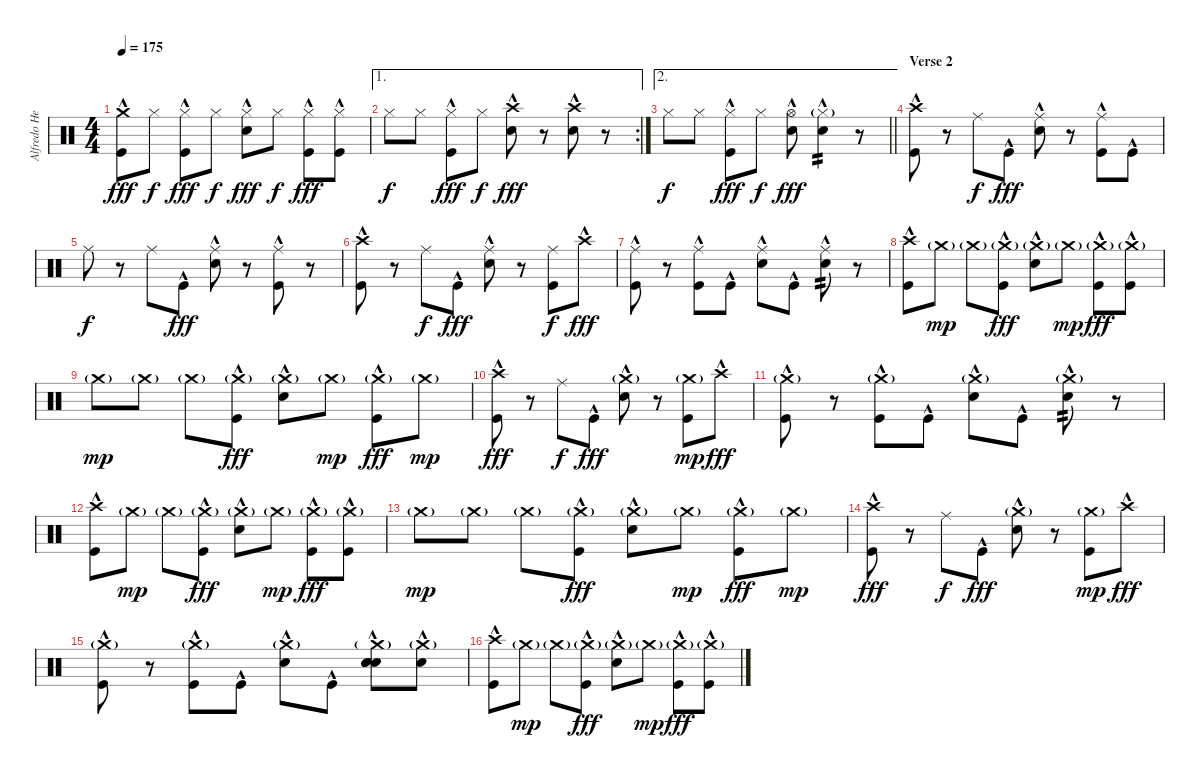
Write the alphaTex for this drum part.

\track ("Alfredo Hernández - Drums" "Alfredo He") {instrument percussion}
\staff {score}
\articulation defaults
\ts (4 4)
\tempo 175
\clef neutral
\ks c
("Crash medium (hit)" "Kick (hit)"{hac}).8{dy fff} "Hi-Hat (closed)".8{dy f} ("Hi-Hat (closed)" "Kick (hit)"{hac}).8{dy fff} "Hi-Hat (closed)".8{dy f} ("Hi-Hat (closed)" "Snare (hit) 2"{hac}).8{dy fff} "Hi-Hat (closed)".8{dy f} ("Hi-Hat (closed)" "Kick (hit)"{hac}).8{dy fff} ("Hi-Hat (closed)" "Kick (hit)"{hac}).8 |
\ae 1
\rc 2 "Hi-Hat (closed)".8{dy f} "Hi-Hat (closed)".8
("Hi-Hat (closed)" "Kick (hit)"{hac}).8{dy fff} "Hi-Hat (closed)".8{dy f} ("Crash high (hit)" "Snare (hit) 2"{hac}).8{dy fff} r.8 ("Crash high (hit)" "Snare (hit) 2"{hac}).8 r.8 |
\ae 2
\barLineRight lightlight "Hi-Hat (closed)".8{dy f} "Hi-Hat (closed)".8
("Hi-Hat (closed)" "Kick (hit)"{hac}).8{dy fff} "Hi-Hat (closed)".8{dy f} ("Hi-Hat (open)" "Snare (hit) 2"{hac}).8{dy fff} ("Hi-Hat (closed)"{g} "Snare (hit) 2"{hac}).4{tp 2} r.8 |
\section ("" "Verse 2")
("Crash high (hit)"{hac} "Kick (hit)"{hac}).8 r.8 "Ride (middle)".8{dy f} "Kick (hit)"{hac}.8{dy fff} ("Ride (middle)" "Snare (hit) 2"{hac}).8 r.8 ("Ride (middle)" "Kick (hit)"{hac}).8 "Kick (hit)"{hac}.8 |
"Ride (middle)".8{dy f} r.8 "Ride (middle)".8 "Kick (hit)"{hac}.8{dy fff} ("Ride (middle)" "Snare (hit) 2"{hac}).8 r.8 ("Ride (middle)" "Kick (hit)"{hac}).8 r.8 |
("Crash high (hit)"{hac} "Kick (hit)"{hac}).8 r.8 "Ride (middle)".8{dy f} "Kick (hit)"{hac}.8{dy fff} ("Ride (middle)" "Snare (hit) 2"{hac}).8 r.8 ("Ride (middle)" "Kick (hit)").8{dy f} "Crash high (hit)"{hac}.8{dy fff} |
("Ride (middle)"{hac} "Kick (hit)"{hac}).8 r.8 ("Ride (middle)" "Kick (hit)"{hac}).8 "Kick (hit)"{hac}.8 ("Ride (middle)" "Snare (hit) 2"{hac}).8 "Kick (hit)"{hac}.8 ("Ride (middle)" "Snare (hit) 2"{hac}).8{tp 2} r.8 |
("Crash high (hit)"{hac} "Kick (hit)"{hac}).8 "Crash medium (hit)"{g}.8{dy mp} "Crash medium (hit)"{g}.8 ("Crash medium (hit)"{g} "Kick (hit)"{hac}).8{dy fff} ("Crash medium (hit)"{g} "Snare (hit) 2"{hac}).8 "Crash medium (hit)"{g}.8{dy mp} ("Crash medium (hit)"{g} "Kick (hit)"{hac}).8{dy fff} ("Crash medium (hit)"{g} "Kick (hit)"{hac}).8 |
"Crash medium (hit)"{g}.8{dy mp} "Crash medium (hit)"{g}.8 "Crash medium (hit)"{g}.8 ("Crash medium (hit)"{g} "Kick (hit)"{hac}).8{dy fff} ("Crash medium (hit)"{g} "Snare (hit) 2"{hac}).8 "Crash medium (hit)"{g}.8{dy mp} ("Crash medium (hit)"{g} "Kick (hit)"{hac}).8{dy fff} "Crash medium (hit)"{g}.8{dy mp} |
("Crash high (hit)"{hac} "Kick (hit)"{hac}).8{dy fff} r.8 "Ride (middle)".8{dy f} "Kick (hit)"{hac}.8{dy fff} ("Crash medium (hit)"{g} "Snare (hit) 2"{hac}).8 r.8 ("Crash medium (hit)"{g} "Kick (hit)").8{dy mp} "Crash high (hit)"{hac}.8{dy fff} |
("Crash medium (hit)"{g} "Kick (hit)"{hac}).8 r.8 ("Crash medium (hit)"{g} "Kick (hit)"{hac}).8 "Kick (hit)"{hac}.8 ("Crash medium (hit)"{g} "Snare (hit) 2"{hac}).8 "Kick (hit)"{hac}.8 ("Crash medium (hit)"{g} "Snare (hit) 2"{hac}).8{tp 2} r.8 |
("Crash high (hit)"{hac} "Kick (hit)"{hac}).8 "Crash medium (hit)"{g}.8{dy mp} "Crash medium (hit)"{g}.8 ("Crash medium (hit)"{g} "Kick (hit)"{hac}).8{dy fff} ("Crash medium (hit)"{g} "Snare (hit) 2"{hac}).8 "Crash medium (hit)"{g}.8{dy mp} ("Crash medium (hit)"{g} "Kick (hit)"{hac}).8{dy fff} ("Crash medium (hit)"{g} "Kick (hit)"{hac}).8 |
"Crash medium (hit)"{g}.8{dy mp} "Crash medium (hit)"{g}.8 "Crash medium (hit)"{g}.8 ("Crash medium (hit)"{g} "Kick (hit)"{hac}).8{dy fff} ("Crash medium (hit)"{g} "Snare (hit) 2"{hac}).8 "Crash medium (hit)"{g}.8{dy mp} ("Crash medium (hit)"{g} "Kick (hit)"{hac}).8{dy fff} "Crash medium (hit)"{g}.8{dy mp} |
("Crash high (hit)"{hac} "Kick (hit)"{hac}).8{dy fff} r.8 "Ride (middle)".8{dy f} "Kick (hit)"{hac}.8{dy fff} ("Crash medium (hit)"{g} "Snare (hit) 2"{hac}).8 r.8 ("Crash medium (hit)"{g} "Kick (hit)").8{dy mp} "Crash high (hit)"{hac}.8{dy fff} |
("Crash medium (hit)"{g} "Kick (hit)"{hac}).8 r.8 ("Crash medium (hit)"{g} "Kick (hit)"{hac}).8 "Kick (hit)"{hac}.8 ("Crash medium (hit)"{g} "Snare (hit) 2"{hac}).8 "Kick (hit)"{hac}.8 ("Crash medium (hit)"{g} "Snare (hit) 2"{hac} "Snare (hit) 2" "Snare (hit) 2"{hac}).8{bd 480} ("Crash medium (hit)"{g} "Snare (hit) 2"{hac}).8 |
("Crash high (hit)"{hac} "Kick (hit)"{hac}).8 "Crash medium (hit)"{g}.8{dy mp} "Crash medium (hit)"{g}.8 ("Crash medium (hit)"{g} "Kick (hit)"{hac}).8{dy fff} ("Crash medium (hit)"{g} "Snare (hit) 2"{hac}).8 "Crash medium (hit)"{g}.8{dy mp} ("Crash medium (hit)"{g} "Kick (hit)"{hac}).8{dy fff} ("Crash medium (hit)"{g} "Kick (hit)"{hac}).8
